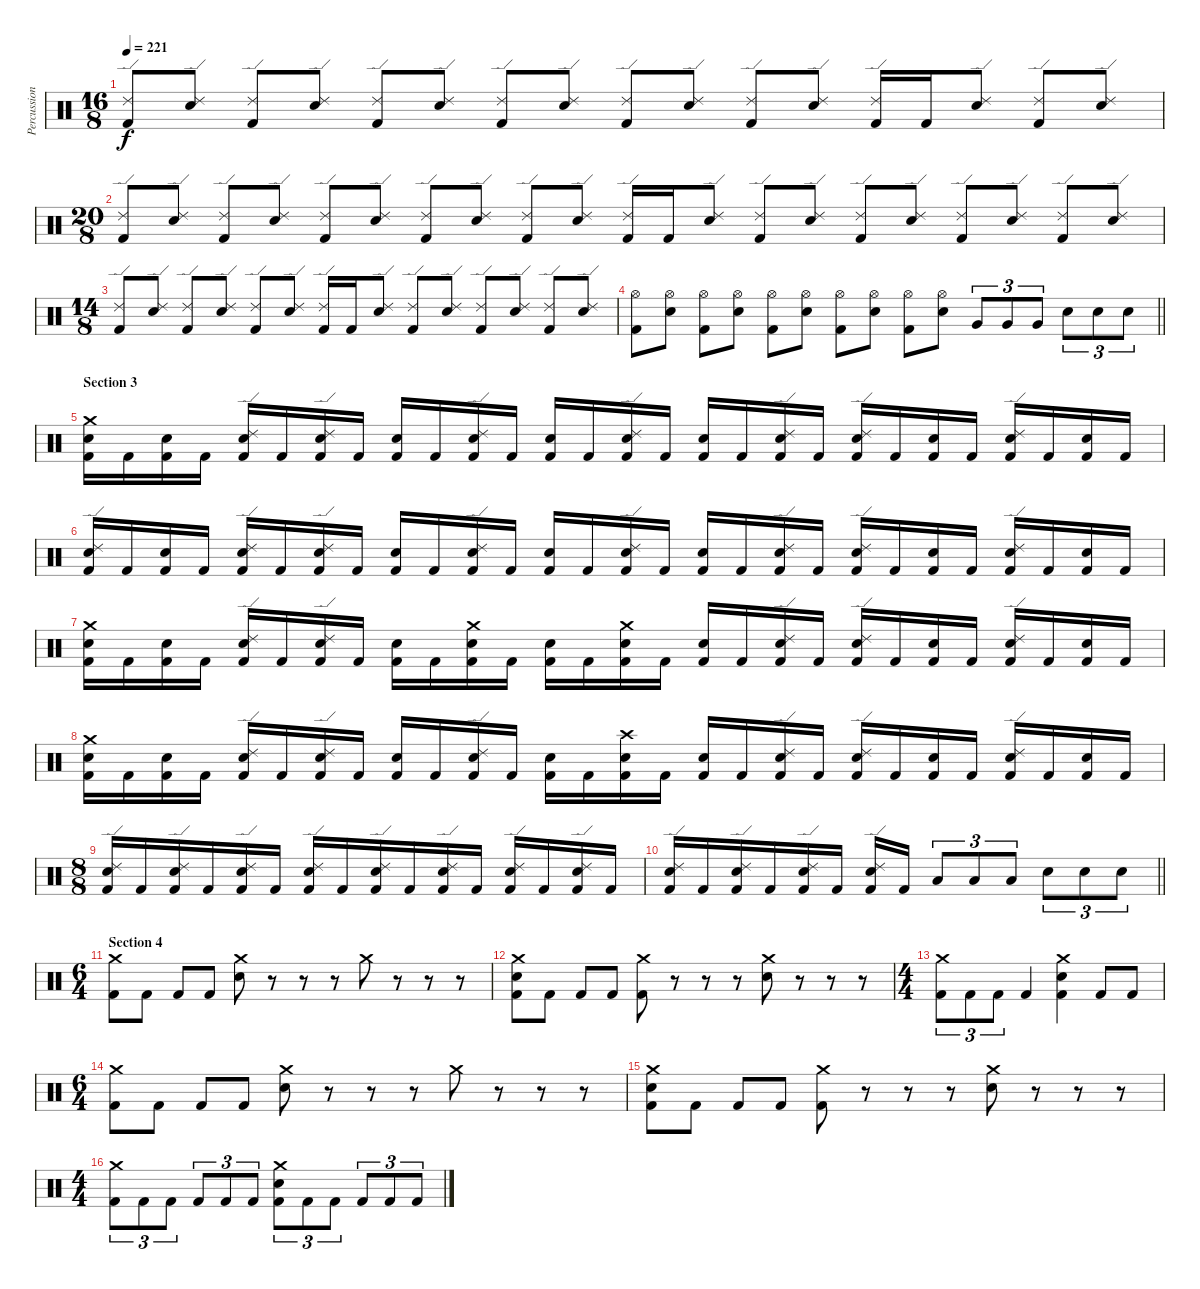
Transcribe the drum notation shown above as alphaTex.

\track ("Percussion" "Percussion") {instrument percussion}
\staff {score}
\articulation defaults
\ts (16 8)
\tempo 221
\clef neutral
\ks c
("Ride (edge) 2" "Kick (hit) 2").8{dy f} ("Ride (edge) 2" "Snare (hit) 2").8 ("Ride (edge) 2" "Kick (hit) 2").8 ("Ride (edge) 2" "Snare (hit) 2").8 ("Ride (edge) 2" "Kick (hit) 2").8 ("Ride (edge) 2" "Snare (hit) 2").8 ("Ride (edge) 2" "Kick (hit) 2").8 ("Ride (edge) 2" "Snare (hit) 2").8 ("Ride (edge) 2" "Kick (hit) 2").8 ("Ride (edge) 2" "Snare (hit) 2").8 ("Ride (edge) 2" "Kick (hit) 2").8 ("Ride (edge) 2" "Snare (hit) 2").8 ("Ride (edge) 2" "Kick (hit) 2").16 "Kick (hit) 2".16 ("Ride (edge) 2" "Snare (hit) 2").8 ("Ride (edge) 2" "Kick (hit) 2").8 ("Ride (edge) 2" "Snare (hit) 2").8 |
\ts (20 8)
("Ride (edge) 2" "Kick (hit) 2").8 ("Ride (edge) 2" "Snare (hit) 2").8 ("Ride (edge) 2" "Kick (hit) 2").8 ("Ride (edge) 2" "Snare (hit) 2").8 ("Ride (edge) 2" "Kick (hit) 2").8 ("Ride (edge) 2" "Snare (hit) 2").8 ("Ride (edge) 2" "Kick (hit) 2").8 ("Ride (edge) 2" "Snare (hit) 2").8 ("Ride (edge) 2" "Kick (hit) 2").8 ("Ride (edge) 2" "Snare (hit) 2").8 ("Ride (edge) 2" "Kick (hit) 2").16 "Kick (hit) 2".16 ("Ride (edge) 2" "Snare (hit) 2").8 ("Ride (edge) 2" "Kick (hit) 2").8 ("Ride (edge) 2" "Snare (hit) 2").8 ("Ride (edge) 2" "Kick (hit) 2").8 ("Ride (edge) 2" "Snare (hit) 2").8 ("Ride (edge) 2" "Kick (hit) 2").8 ("Ride (edge) 2" "Snare (hit) 2").8 ("Ride (edge) 2" "Kick (hit) 2").8 ("Ride (edge) 2" "Snare (hit) 2").8 |
\ts (14 8)
("Ride (edge) 2" "Kick (hit) 2").8 ("Ride (edge) 2" "Snare (hit) 2").8 ("Ride (edge) 2" "Kick (hit) 2").8 ("Ride (edge) 2" "Snare (hit) 2").8 ("Ride (edge) 2" "Kick (hit) 2").8 ("Ride (edge) 2" "Snare (hit) 2").8 ("Ride (edge) 2" "Kick (hit) 2").16 "Kick (hit) 2".16 ("Ride (edge) 2" "Snare (hit) 2").8 ("Ride (edge) 2" "Kick (hit) 2").8 ("Ride (edge) 2" "Snare (hit) 2").8 ("Ride (edge) 2" "Kick (hit) 2").8 ("Ride (edge) 2" "Snare (hit) 2").8 ("Ride (edge) 2" "Kick (hit) 2").8 ("Ride (edge) 2" "Snare (hit) 2").8 |
\barLineRight lightlight
("Hi-Hat (open)" "Kick (hit) 2").8 ("Hi-Hat (open)" "Snare (hit) 2").8 ("Hi-Hat (open)" "Kick (hit) 2").8 ("Hi-Hat (open)" "Snare (hit) 2").8 ("Hi-Hat (open)" "Kick (hit) 2").8 ("Hi-Hat (open)" "Snare (hit) 2").8 ("Hi-Hat (open)" "Kick (hit) 2").8 ("Hi-Hat (open)" "Snare (hit) 2").8 ("Hi-Hat (open)" "Kick (hit) 2").8 ("Hi-Hat (open)" "Snare (hit) 2").8 "Very Low Tom (hit)".8{tu (3 2)} "Very Low Tom (hit)".8{tu (3 2)} "Very Low Tom (hit)".8{tu (3 2)} "Snare (hit) 2".8{tu (3 2)} "Snare (hit) 2".8{tu (3 2)} "Snare (hit) 2".8{tu (3 2)} |
\section ("" "Section 3")
("Crash medium (hit)" "Snare (hit) 2" "Kick (hit) 2").16 "Kick (hit) 2".16 ("Snare (hit) 2" "Kick (hit) 2").16 "Kick (hit) 2".16 ("Ride (edge) 2" "Snare (hit) 2" "Kick (hit) 2").16 "Kick (hit) 2".16 ("Ride (edge) 2" "Snare (hit) 2" "Kick (hit) 2").16 "Kick (hit) 2".16 ("Snare (hit) 2" "Kick (hit) 2").16 "Kick (hit) 2".16 ("Ride (edge) 2" "Snare (hit) 2" "Kick (hit) 2").16 "Kick (hit) 2".16 ("Snare (hit) 2" "Kick (hit) 2").16 "Kick (hit) 2".16 ("Ride (edge) 2" "Snare (hit) 2" "Kick (hit) 2").16 "Kick (hit) 2".16 ("Snare (hit) 2" "Kick (hit) 2").16 "Kick (hit) 2".16 ("Ride (edge) 2" "Snare (hit) 2" "Kick (hit) 2").16 "Kick (hit) 2".16 ("Ride (edge) 2" "Snare (hit) 2" "Kick (hit) 2").16 "Kick (hit) 2".16 ("Snare (hit) 2" "Kick (hit) 2").16 "Kick (hit) 2".16 ("Ride (edge) 2" "Snare (hit) 2" "Kick (hit) 2").16 "Kick (hit) 2".16 ("Snare (hit) 2" "Kick (hit) 2").16 "Kick (hit) 2".16 |
("Ride (edge) 2" "Snare (hit) 2" "Kick (hit) 2").16 "Kick (hit) 2".16 ("Snare (hit) 2" "Kick (hit) 2").16 "Kick (hit) 2".16 ("Ride (edge) 2" "Snare (hit) 2" "Kick (hit) 2").16 "Kick (hit) 2".16 ("Ride (edge) 2" "Snare (hit) 2" "Kick (hit) 2").16 "Kick (hit) 2".16 ("Snare (hit) 2" "Kick (hit) 2").16 "Kick (hit) 2".16 ("Ride (edge) 2" "Snare (hit) 2" "Kick (hit) 2").16 "Kick (hit) 2".16 ("Snare (hit) 2" "Kick (hit) 2").16 "Kick (hit) 2".16 ("Ride (edge) 2" "Snare (hit) 2" "Kick (hit) 2").16 "Kick (hit) 2".16 ("Snare (hit) 2" "Kick (hit) 2").16 "Kick (hit) 2".16 ("Ride (edge) 2" "Snare (hit) 2" "Kick (hit) 2").16 "Kick (hit) 2".16 ("Ride (edge) 2" "Snare (hit) 2" "Kick (hit) 2").16 "Kick (hit) 2".16 ("Snare (hit) 2" "Kick (hit) 2").16 "Kick (hit) 2".16 ("Ride (edge) 2" "Snare (hit) 2" "Kick (hit) 2").16 "Kick (hit) 2".16 ("Snare (hit) 2" "Kick (hit) 2").16 "Kick (hit) 2".16 |
("Crash medium (hit)" "Snare (hit) 2" "Kick (hit) 2").16 "Kick (hit) 2".16 ("Snare (hit) 2" "Kick (hit) 2").16 "Kick (hit) 2".16 ("Ride (edge) 2" "Snare (hit) 2" "Kick (hit) 2").16 "Kick (hit) 2".16 ("Ride (edge) 2" "Snare (hit) 2" "Kick (hit) 2").16 "Kick (hit) 2".16 ("Snare (hit) 2" "Kick (hit) 2").16 "Kick (hit) 2".16 ("Crash medium (hit)" "Snare (hit) 2" "Kick (hit) 2").16 "Kick (hit) 2".16 ("Snare (hit) 2" "Kick (hit) 2").16 "Kick (hit) 2".16 ("Crash medium (hit)" "Snare (hit) 2" "Kick (hit) 2").16 "Kick (hit) 2".16 ("Snare (hit) 2" "Kick (hit) 2").16 "Kick (hit) 2".16 ("Ride (edge) 2" "Snare (hit) 2" "Kick (hit) 2").16 "Kick (hit) 2".16 ("Ride (edge) 2" "Snare (hit) 2" "Kick (hit) 2").16 "Kick (hit) 2".16 ("Snare (hit) 2" "Kick (hit) 2").16 "Kick (hit) 2".16 ("Ride (edge) 2" "Snare (hit) 2" "Kick (hit) 2").16 "Kick (hit) 2".16 ("Snare (hit) 2" "Kick (hit) 2").16 "Kick (hit) 2".16 |
("Crash medium (hit)" "Snare (hit) 2" "Kick (hit) 2").16 "Kick (hit) 2".16 ("Snare (hit) 2" "Kick (hit) 2").16 "Kick (hit) 2".16 ("Ride (edge) 2" "Snare (hit) 2" "Kick (hit) 2").16 "Kick (hit) 2".16 ("Ride (edge) 2" "Snare (hit) 2" "Kick (hit) 2").16 "Kick (hit) 2".16 ("Snare (hit) 2" "Kick (hit) 2").16 "Kick (hit) 2".16 ("Ride (edge) 2" "Snare (hit) 2" "Kick (hit) 2").16 "Kick (hit) 2".16 ("Snare (hit) 2" "Kick (hit) 2").16 "Kick (hit) 2".16 ("Crash high (hit)" "Snare (hit) 2" "Kick (hit) 2").16 "Kick (hit) 2".16 ("Snare (hit) 2" "Kick (hit) 2").16 "Kick (hit) 2".16 ("Ride (edge) 2" "Snare (hit) 2" "Kick (hit) 2").16 "Kick (hit) 2".16 ("Ride (edge) 2" "Snare (hit) 2" "Kick (hit) 2").16 "Kick (hit) 2".16 ("Snare (hit) 2" "Kick (hit) 2").16 "Kick (hit) 2".16 ("Ride (edge) 2" "Snare (hit) 2" "Kick (hit) 2").16 "Kick (hit) 2".16 ("Snare (hit) 2" "Kick (hit) 2").16 "Kick (hit) 2".16 |
\ts (8 8)
("Ride (edge) 2" "Snare (hit) 2" "Kick (hit) 2").16 "Kick (hit) 2".16 ("Ride (edge) 2" "Snare (hit) 2" "Kick (hit) 2").16 "Kick (hit) 2".16 ("Ride (edge) 2" "Snare (hit) 2" "Kick (hit) 2").16 "Kick (hit) 2".16 ("Ride (edge) 2" "Snare (hit) 2" "Kick (hit) 2").16 "Kick (hit) 2".16 ("Ride (edge) 2" "Snare (hit) 2" "Kick (hit) 2").16 "Kick (hit) 2".16 ("Ride (edge) 2" "Snare (hit) 2" "Kick (hit) 2").16 "Kick (hit) 2".16 ("Ride (edge) 2" "Snare (hit) 2" "Kick (hit) 2").16 "Kick (hit) 2".16 ("Ride (edge) 2" "Snare (hit) 2" "Kick (hit) 2").16 "Kick (hit) 2".16 |
\barLineRight lightlight
("Ride (edge) 2" "Snare (hit) 2" "Kick (hit) 2").16 "Kick (hit) 2".16 ("Ride (edge) 2" "Snare (hit) 2" "Kick (hit) 2").16 "Kick (hit) 2".16 ("Ride (edge) 2" "Snare (hit) 2" "Kick (hit) 2").16 "Kick (hit) 2".16 ("Ride (edge) 2" "Snare (hit) 2" "Kick (hit) 2").16 "Kick (hit) 2".16 "Low Tom (hit)".8{tu (3 2)} "Low Tom (hit)".8{tu (3 2)} "Low Tom (hit)".8{tu (3 2)} "Snare (hit) 2".8{tu (3 2)} "Snare (hit) 2".8{tu (3 2)} "Snare (hit) 2".8{tu (3 2)} |
\ts (6 4)
\section ("" "Section 4")
("Crash medium (hit)" "Kick (hit) 2").8 "Kick (hit) 2".8 "Kick (hit) 2".8 "Kick (hit) 2".8 ("Crash medium (hit)" "Snare (hit) 2").8 r.8 r.8 r.8 "Crash medium (hit)".8 r.8 r.8 r.8 |
("Crash medium (hit)" "Snare (hit) 2" "Kick (hit) 2").8 "Kick (hit) 2".8 "Kick (hit) 2".8 "Kick (hit) 2".8 ("Crash medium (hit)" "Kick (hit) 2").8 r.8 r.8 r.8 ("Crash medium (hit)" "Snare (hit) 2").8 r.8 r.8 r.8 |
\ts (4 4)
("Crash medium (hit)" "Kick (hit) 2").8{tu (3 2)} "Kick (hit) 2".8{tu (3 2)} "Kick (hit) 2".8{tu (3 2)} "Kick (hit) 2".4 ("Crash medium (hit)" "Snare (hit) 2" "Kick (hit) 2").4 "Kick (hit) 2".8 "Kick (hit) 2".8 |
\ts (6 4)
("Crash medium (hit)" "Kick (hit) 2").8 "Kick (hit) 2".8 "Kick (hit) 2".8 "Kick (hit) 2".8 ("Crash medium (hit)" "Snare (hit) 2").8 r.8 r.8 r.8 "Crash medium (hit)".8 r.8 r.8 r.8 |
("Crash medium (hit)" "Snare (hit) 2" "Kick (hit) 2").8 "Kick (hit) 2".8 "Kick (hit) 2".8 "Kick (hit) 2".8 ("Crash medium (hit)" "Kick (hit) 2").8 r.8 r.8 r.8 ("Crash medium (hit)" "Snare (hit) 2").8 r.8 r.8 r.8 |
\ts (4 4)
("Crash medium (hit)" "Kick (hit) 2").8{tu (3 2)} "Kick (hit) 2".8{tu (3 2)} "Kick (hit) 2".8{tu (3 2)} "Kick (hit) 2".8{tu (3 2)} "Kick (hit) 2".8{tu (3 2)} "Kick (hit) 2".8{tu (3 2)} ("Crash medium (hit)" "Snare (hit) 2" "Kick (hit) 2").8{tu (3 2)} "Kick (hit) 2".8{tu (3 2)} "Kick (hit) 2".8{tu (3 2)} "Kick (hit) 2".8{tu (3 2)} "Kick (hit) 2".8{tu (3 2)} "Kick (hit) 2".8{tu (3 2)}
